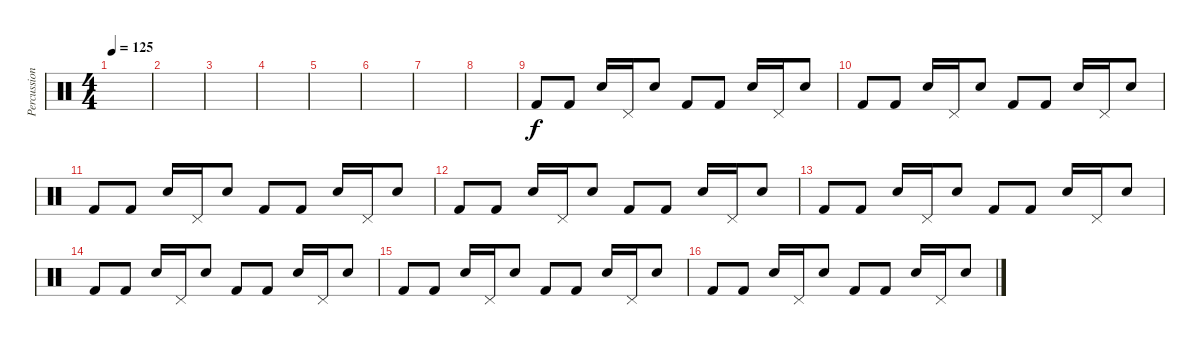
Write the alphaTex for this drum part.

\track ("Percussion" "Percussion") {instrument percussion}
\staff {score}
\articulation defaults
\ts (4 4)
\tempo 125
\clef neutral
\ks c
|
|
|
|
|
|
|
|
"Kick (hit) 2".8 "Kick (hit) 2".8 "Electric Snare (hit)".16 "Pedal Hi-Hat (hit)".16 "Electric Snare (hit)".8 "Kick (hit) 2".8 "Kick (hit) 2".8 "Electric Snare (hit)".16 "Pedal Hi-Hat (hit)".16 "Electric Snare (hit)".8 |
"Kick (hit) 2".8 "Kick (hit) 2".8 "Electric Snare (hit)".16 "Pedal Hi-Hat (hit)".16 "Electric Snare (hit)".8 "Kick (hit) 2".8 "Kick (hit) 2".8 "Electric Snare (hit)".16 "Pedal Hi-Hat (hit)".16 "Electric Snare (hit)".8 |
"Kick (hit) 2".8 "Kick (hit) 2".8 "Electric Snare (hit)".16 "Pedal Hi-Hat (hit)".16 "Electric Snare (hit)".8 "Kick (hit) 2".8 "Kick (hit) 2".8 "Electric Snare (hit)".16 "Pedal Hi-Hat (hit)".16 "Electric Snare (hit)".8 |
"Kick (hit) 2".8 "Kick (hit) 2".8 "Electric Snare (hit)".16 "Pedal Hi-Hat (hit)".16 "Electric Snare (hit)".8 "Kick (hit) 2".8 "Kick (hit) 2".8 "Electric Snare (hit)".16 "Pedal Hi-Hat (hit)".16 "Electric Snare (hit)".8 |
"Kick (hit) 2".8 "Kick (hit) 2".8 "Electric Snare (hit)".16 "Pedal Hi-Hat (hit)".16 "Electric Snare (hit)".8 "Kick (hit) 2".8 "Kick (hit) 2".8 "Electric Snare (hit)".16 "Pedal Hi-Hat (hit)".16 "Electric Snare (hit)".8 |
"Kick (hit) 2".8 "Kick (hit) 2".8 "Electric Snare (hit)".16 "Pedal Hi-Hat (hit)".16 "Electric Snare (hit)".8 "Kick (hit) 2".8 "Kick (hit) 2".8 "Electric Snare (hit)".16 "Pedal Hi-Hat (hit)".16 "Electric Snare (hit)".8 |
"Kick (hit) 2".8 "Kick (hit) 2".8 "Electric Snare (hit)".16 "Pedal Hi-Hat (hit)".16 "Electric Snare (hit)".8 "Kick (hit) 2".8 "Kick (hit) 2".8 "Electric Snare (hit)".16 "Pedal Hi-Hat (hit)".16 "Electric Snare (hit)".8 |
"Kick (hit) 2".8 "Kick (hit) 2".8 "Electric Snare (hit)".16 "Pedal Hi-Hat (hit)".16 "Electric Snare (hit)".8 "Kick (hit) 2".8 "Kick (hit) 2".8 "Electric Snare (hit)".16 "Pedal Hi-Hat (hit)".16 "Electric Snare (hit)".8
